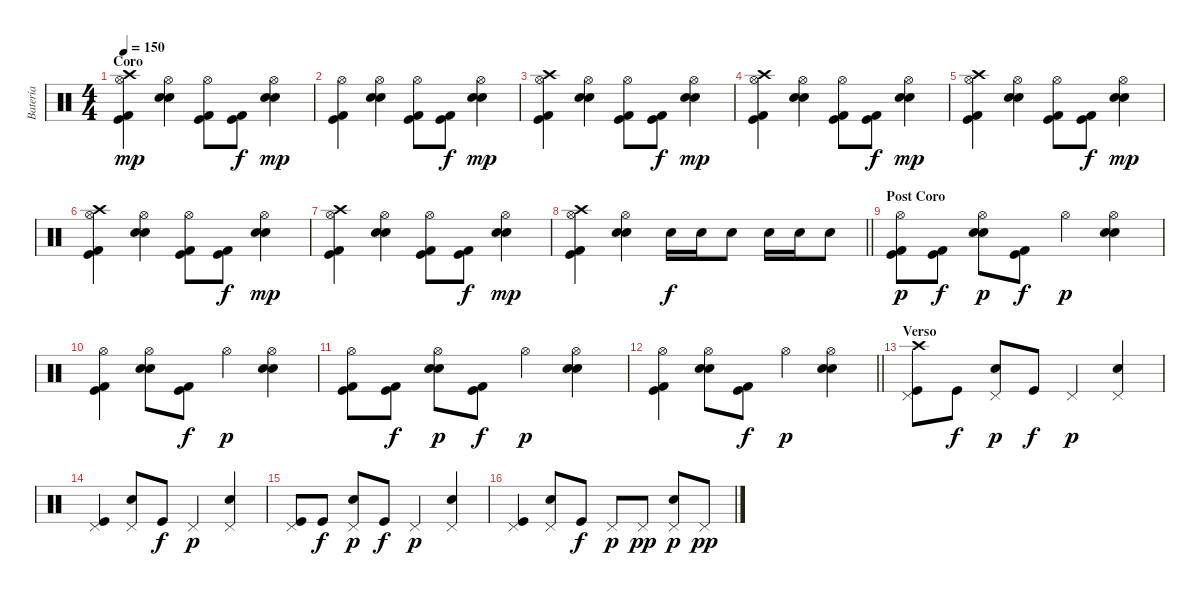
\track ("Batería" "Batería") {instrument percussion}
\staff {score}
\articulation defaults
\ts (4 4)
\section ("" "Coro")
\tempo 150
\clef neutral
\ks c
("Crash high (hit)" "Hi-Hat (open)" "Kick (hit)" "Kick (hit) 2").4{dy mp} ("Hi-Hat (open)" "Snare (hit) 2" "Electric Snare (hit)").4 ("Hi-Hat (open)" "Kick (hit)" "Kick (hit) 2").8 ("Kick (hit) 2" "Kick (hit)").8{dy f} ("Hi-Hat (open)" "Snare (hit) 2" "Electric Snare (hit)").4{dy mp} |
("Hi-Hat (open)" "Kick (hit)" "Kick (hit) 2").4 ("Hi-Hat (open)" "Snare (hit) 2" "Electric Snare (hit)").4 ("Hi-Hat (open)" "Kick (hit)" "Kick (hit) 2").8 ("Kick (hit) 2" "Kick (hit)").8{dy f} ("Hi-Hat (open)" "Snare (hit) 2" "Electric Snare (hit)").4{dy mp} |
("Crash high (hit)" "Hi-Hat (open)" "Kick (hit)" "Kick (hit) 2").4 ("Hi-Hat (open)" "Snare (hit) 2" "Electric Snare (hit)").4 ("Hi-Hat (open)" "Kick (hit)" "Kick (hit) 2").8 ("Kick (hit) 2" "Kick (hit)").8{dy f} ("Hi-Hat (open)" "Snare (hit) 2" "Electric Snare (hit)").4{dy mp} |
("Crash high (hit)" "Hi-Hat (open)" "Kick (hit)" "Kick (hit) 2").4 ("Hi-Hat (open)" "Snare (hit) 2" "Electric Snare (hit)").4 ("Hi-Hat (open)" "Kick (hit)" "Kick (hit) 2").8 ("Kick (hit) 2" "Kick (hit)").8{dy f} ("Hi-Hat (open)" "Snare (hit) 2" "Electric Snare (hit)").4{dy mp} |
("Crash high (hit)" "Hi-Hat (open)" "Kick (hit)" "Kick (hit) 2").4 ("Hi-Hat (open)" "Snare (hit) 2" "Electric Snare (hit)").4 ("Hi-Hat (open)" "Kick (hit)" "Kick (hit) 2").8 ("Kick (hit) 2" "Kick (hit)").8{dy f} ("Hi-Hat (open)" "Snare (hit) 2" "Electric Snare (hit)").4{dy mp} |
("Crash high (hit)" "Hi-Hat (open)" "Kick (hit)" "Kick (hit) 2").4 ("Hi-Hat (open)" "Snare (hit) 2" "Electric Snare (hit)").4 ("Hi-Hat (open)" "Kick (hit)" "Kick (hit) 2").8 ("Kick (hit) 2" "Kick (hit)").8{dy f} ("Hi-Hat (open)" "Snare (hit) 2" "Electric Snare (hit)").4{dy mp} |
("Crash high (hit)" "Hi-Hat (open)" "Kick (hit)" "Kick (hit) 2").4 ("Hi-Hat (open)" "Snare (hit) 2" "Electric Snare (hit)").4 ("Hi-Hat (open)" "Kick (hit)" "Kick (hit) 2").8 ("Kick (hit)" "Kick (hit) 2").8{dy f} ("Hi-Hat (open)" "Snare (hit) 2" "Electric Snare (hit)").4{dy mp} |
\barLineRight lightlight
("Crash high (hit)" "Hi-Hat (open)" "Kick (hit)" "Kick (hit) 2").4 ("Hi-Hat (open)" "Snare (hit) 2" "Electric Snare (hit)").4 "Electric Snare (hit)".16{dy f} "Electric Snare (hit)".16 "Electric Snare (hit)".8 "Electric Snare (hit)".16 "Electric Snare (hit)".16 "Electric Snare (hit)".8 |
\section ("" "Post Coro")
("Kick (hit)" "Kick (hit) 2" "Hi-Hat (open)").8{dy p} ("Kick (hit)" "Kick (hit) 2").8{dy f} ("Electric Snare (hit)" "Snare (hit) 2" "Hi-Hat (open)").8{dy p} ("Kick (hit)" "Kick (hit) 2").8{dy f} "Hi-Hat (open)".4{dy p} ("Electric Snare (hit)" "Snare (hit) 2" "Hi-Hat (open)").4 |
("Kick (hit)" "Kick (hit) 2" "Hi-Hat (open)").4 ("Snare (hit) 2" "Electric Snare (hit)" "Hi-Hat (open)").8 ("Kick (hit)" "Kick (hit) 2").8{dy f} "Hi-Hat (open)".4{dy p} ("Electric Snare (hit)" "Snare (hit) 2" "Hi-Hat (open)").4 |
("Kick (hit)" "Kick (hit) 2" "Hi-Hat (open)").8 ("Kick (hit)" "Kick (hit) 2").8{dy f} ("Electric Snare (hit)" "Snare (hit) 2" "Hi-Hat (open)").8{dy p} ("Kick (hit)" "Kick (hit) 2").8{dy f} "Hi-Hat (open)".4{dy p} ("Electric Snare (hit)" "Snare (hit) 2" "Hi-Hat (open)").4 |
\barLineRight lightlight
("Kick (hit)" "Kick (hit) 2" "Hi-Hat (open)").4 ("Snare (hit) 2" "Electric Snare (hit)" "Hi-Hat (open)").8 ("Kick (hit)" "Kick (hit) 2").8{dy f} "Hi-Hat (open)".4{dy p} ("Electric Snare (hit)" "Snare (hit) 2" "Hi-Hat (open)").4 |
\section ("" "Verso")
("Kick (hit)" "Crash high (hit)" "Pedal Hi-Hat (hit)").8 "Kick (hit)".8{dy f} ("Electric Snare (hit)" "Pedal Hi-Hat (hit)").8{dy p} "Kick (hit)".8{dy f} "Pedal Hi-Hat (hit)".4{dy p} ("Electric Snare (hit)" "Pedal Hi-Hat (hit)").4 |
("Kick (hit)" "Pedal Hi-Hat (hit)").4 ("Snare (hit) 2" "Pedal Hi-Hat (hit)").8 "Kick (hit)".8{dy f} "Pedal Hi-Hat (hit)".4{dy p} ("Electric Snare (hit)" "Pedal Hi-Hat (hit)").4 |
("Kick (hit)" "Pedal Hi-Hat (hit)").8 "Kick (hit)".8{dy f} ("Electric Snare (hit)" "Pedal Hi-Hat (hit)").8{dy p} "Kick (hit)".8{dy f} "Pedal Hi-Hat (hit)".4{dy p} ("Electric Snare (hit)" "Pedal Hi-Hat (hit)").4 |
("Kick (hit)" "Pedal Hi-Hat (hit)").4 ("Snare (hit) 2" "Pedal Hi-Hat (hit)").8 "Kick (hit)".8{dy f} "Pedal Hi-Hat (hit)".8{dy p} "Pedal Hi-Hat (hit)".8{dy pp} ("Electric Snare (hit)" "Pedal Hi-Hat (hit)").8{dy p} "Pedal Hi-Hat (hit)".8{dy pp}
